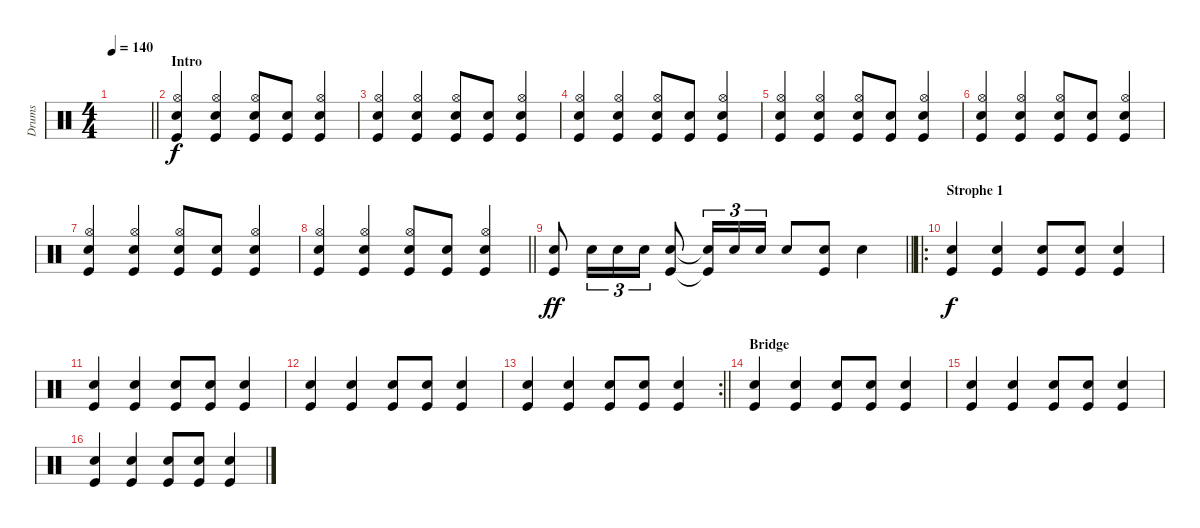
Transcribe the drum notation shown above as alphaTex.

\track ("Drums" "Drums") {instrument percussion}
\staff {score}
\articulation defaults
\ts (4 4)
\tempo 140
\clef neutral
\barLineRight lightlight
\ks c
|
\section ("" "Intro")
("Kick (hit)" "Hi-Hat (open)" "Snare (hit) 2").4 ("Kick (hit)" "Hi-Hat (open)" "Snare (hit) 2").4 ("Kick (hit)" "Hi-Hat (open)" "Snare (hit) 2").8 ("Kick (hit)" "Snare (hit) 2").8 ("Kick (hit)" "Hi-Hat (open)" "Snare (hit) 2").4 |
("Kick (hit)" "Hi-Hat (open)" "Snare (hit) 2").4 ("Kick (hit)" "Hi-Hat (open)" "Snare (hit) 2").4 ("Kick (hit)" "Hi-Hat (open)" "Snare (hit) 2").8 ("Kick (hit)" "Snare (hit) 2").8 ("Kick (hit)" "Hi-Hat (open)" "Snare (hit) 2").4 |
("Kick (hit)" "Hi-Hat (open)" "Snare (hit) 2").4 ("Kick (hit)" "Hi-Hat (open)" "Snare (hit) 2").4 ("Kick (hit)" "Hi-Hat (open)" "Snare (hit) 2").8 ("Kick (hit)" "Snare (hit) 2").8 ("Kick (hit)" "Hi-Hat (open)" "Snare (hit) 2").4 |
("Kick (hit)" "Hi-Hat (open)" "Snare (hit) 2").4 ("Kick (hit)" "Hi-Hat (open)" "Snare (hit) 2").4 ("Kick (hit)" "Hi-Hat (open)" "Snare (hit) 2").8 ("Kick (hit)" "Snare (hit) 2").8 ("Kick (hit)" "Hi-Hat (open)" "Snare (hit) 2").4 |
("Kick (hit)" "Hi-Hat (open)" "Snare (hit) 2").4 ("Kick (hit)" "Hi-Hat (open)" "Snare (hit) 2").4 ("Kick (hit)" "Hi-Hat (open)" "Snare (hit) 2").8 ("Kick (hit)" "Snare (hit) 2").8 ("Kick (hit)" "Hi-Hat (open)" "Snare (hit) 2").4 |
("Kick (hit)" "Hi-Hat (open)" "Snare (hit) 2").4 ("Kick (hit)" "Hi-Hat (open)" "Snare (hit) 2").4 ("Kick (hit)" "Hi-Hat (open)" "Snare (hit) 2").8 ("Kick (hit)" "Snare (hit) 2").8 ("Kick (hit)" "Hi-Hat (open)" "Snare (hit) 2").4 |
\barLineRight lightlight
("Kick (hit)" "Hi-Hat (open)" "Snare (hit) 2").4 ("Kick (hit)" "Hi-Hat (open)" "Snare (hit) 2").4 ("Kick (hit)" "Hi-Hat (open)" "Snare (hit) 2").8 ("Kick (hit)" "Snare (hit) 2").8 ("Kick (hit)" "Hi-Hat (open)" "Snare (hit) 2").4 |
\barLineRight lightlight
("Kick (hit)" "Snare (hit) 2").8{dy ff} "Snare (hit) 2".16{tu (3 2)} "Snare (hit) 2".16{tu (3 2)} "Snare (hit) 2".16{tu (3 2)} ("Kick (hit)" "Snare (hit) 2").8 ("Kick (hit)"{t} "Snare (hit) 2"{t}).16{tu (3 2)} "Snare (hit) 2".16{tu (3 2)} "Snare (hit) 2".16{tu (3 2)} "Snare (hit) 2".8 ("Kick (hit)" "Snare (hit) 2").8 "Snare (hit) 2".4 |
\ro
\section ("" "Strophe 1")
("Kick (hit)" "Snare (hit) 2").4{dy f} ("Kick (hit)" "Snare (hit) 2").4 ("Kick (hit)" "Snare (hit) 2").8 ("Kick (hit)" "Snare (hit) 2").8 ("Kick (hit)" "Snare (hit) 2").4 |
("Kick (hit)" "Snare (hit) 2").4 ("Kick (hit)" "Snare (hit) 2").4 ("Kick (hit)" "Snare (hit) 2").8 ("Kick (hit)" "Snare (hit) 2").8 ("Kick (hit)" "Snare (hit) 2").4 |
("Kick (hit)" "Snare (hit) 2").4 ("Kick (hit)" "Snare (hit) 2").4 ("Kick (hit)" "Snare (hit) 2").8 ("Kick (hit)" "Snare (hit) 2").8 ("Kick (hit)" "Snare (hit) 2").4 |
\rc 2
\barLineRight lightlight
("Kick (hit)" "Snare (hit) 2").4 ("Kick (hit)" "Snare (hit) 2").4 ("Kick (hit)" "Snare (hit) 2").8 ("Kick (hit)" "Snare (hit) 2").8 ("Kick (hit)" "Snare (hit) 2").4 |
\section ("" "Bridge")
("Kick (hit)" "Snare (hit) 2").4 ("Kick (hit)" "Snare (hit) 2").4 ("Kick (hit)" "Snare (hit) 2").8 ("Kick (hit)" "Snare (hit) 2").8 ("Kick (hit)" "Snare (hit) 2").4 |
("Kick (hit)" "Snare (hit) 2").4 ("Kick (hit)" "Snare (hit) 2").4 ("Kick (hit)" "Snare (hit) 2").8 ("Kick (hit)" "Snare (hit) 2").8 ("Kick (hit)" "Snare (hit) 2").4 |
("Kick (hit)" "Snare (hit) 2").4 ("Kick (hit)" "Snare (hit) 2").4 ("Kick (hit)" "Snare (hit) 2").8 ("Kick (hit)" "Snare (hit) 2").8 ("Kick (hit)" "Snare (hit) 2").4
